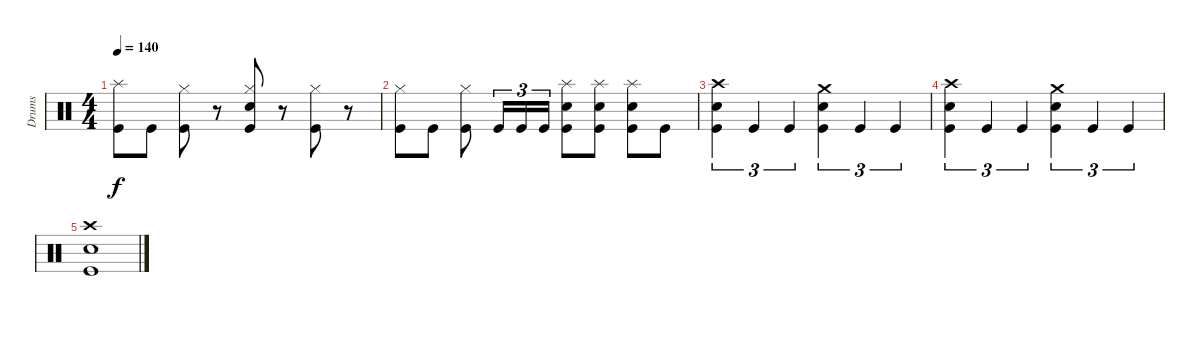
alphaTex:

\track ("Drums" "Drums") {instrument percussion}
\staff {score}
\articulation defaults
\ts (4 4)
\tempo 140
\clef neutral
\ks c
("Splash (hit)" "Kick (hit)").8{dy f} "Kick (hit)".8 ("Hi-Hat (closed)" "Kick (hit)").8 r.8 ("Hi-Hat (closed)" "Snare (hit) 2" "Kick (hit)").8 r.8 ("Hi-Hat (closed)" "Kick (hit)").8 r.8 |
("Hi-Hat (closed)" "Kick (hit)").8 "Kick (hit)".8 ("Hi-Hat (closed)" "Kick (hit)").8 "Kick (hit)".16{tu (3 2)} "Kick (hit)".16{tu (3 2)} "Kick (hit)".16{tu (3 2)} ("Splash (hit)" "Snare (hit) 2" "Kick (hit)").8 ("Splash (hit)" "Snare (hit) 2" "Kick (hit)").8 ("Splash (hit)" "Snare (hit) 2" "Kick (hit)").8 "Kick (hit)".8 |
("Crash high (hit)" "Snare (hit) 2" "Kick (hit)").4{tu (3 2)} "Kick (hit)".4{tu (3 2)} "Kick (hit)".4{tu (3 2)} ("Crash medium (hit)" "Snare (hit) 2" "Kick (hit)").4{tu (3 2)} "Kick (hit)".4{tu (3 2)} "Kick (hit)".4{tu (3 2)} |
("Crash high (hit)" "Snare (hit) 2" "Kick (hit)").4{tu (3 2)} "Kick (hit)".4{tu (3 2)} "Kick (hit)".4{tu (3 2)} ("Crash medium (hit)" "Snare (hit) 2" "Kick (hit)").4{tu (3 2)} "Kick (hit)".4{tu (3 2)} "Kick (hit)".4{tu (3 2)} |
("Crash high (hit)" "Snare (hit) 2" "Kick (hit)").1
